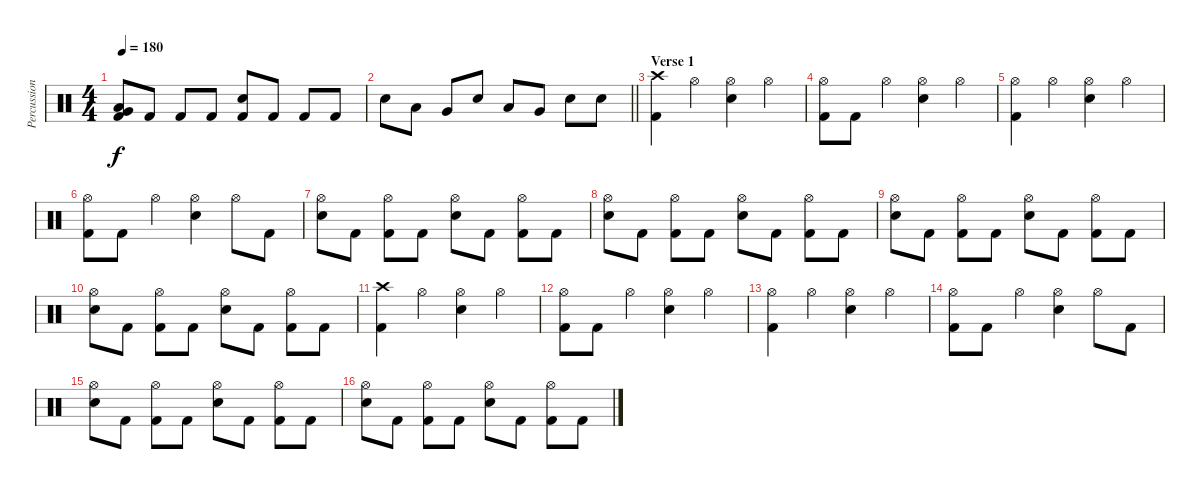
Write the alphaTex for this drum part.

\track ("Percussion" "Percussion") {instrument percussion}
\staff {score}
\articulation defaults
\ts (4 4)
\tempo 180
\clef neutral
\ks c
("Very Low Tom (hit)" "Low Floor Tom (hit)" "Kick (hit) 2").8{dy f} "Kick (hit) 2".8 "Kick (hit) 2".8 "Kick (hit) 2".8 ("Electric Snare (hit)" "Kick (hit) 2").8 "Kick (hit) 2".8 "Kick (hit) 2".8 "Kick (hit) 2".8 |
\barLineRight lightlight "Electric Snare (hit)".8 "Low Tom (hit)".8 "Very Low Tom (hit)".8 "Electric Snare (hit)".8 "Low Tom (hit)".8 "Very Low Tom (hit)".8 "Electric Snare (hit)".8 "Electric Snare (hit)".8
|
\section ("" "Verse 1")
("Crash high (hit)" "Kick (hit) 2").4 "Hi-Hat (open)".4 ("Hi-Hat (open)" "Electric Snare (hit)").4 "Hi-Hat (open)".4 |
("Hi-Hat (open)" "Kick (hit) 2").8 "Kick (hit) 2".8 "Hi-Hat (open)".4 ("Hi-Hat (open)" "Electric Snare (hit)").4 "Hi-Hat (open)".4 |
("Hi-Hat (open)" "Kick (hit) 2").4 "Hi-Hat (open)".4 ("Hi-Hat (open)" "Electric Snare (hit)").4 "Hi-Hat (open)".4 |
("Hi-Hat (open)" "Kick (hit) 2").8 "Kick (hit) 2".8 "Hi-Hat (open)".4 ("Hi-Hat (open)" "Electric Snare (hit)").4 "Hi-Hat (open)".8 "Kick (hit) 2".8 |
("Hi-Hat (open)" "Electric Snare (hit)").8 "Kick (hit) 2".8 ("Hi-Hat (open)" "Kick (hit) 2").8 "Kick (hit) 2".8 ("Hi-Hat (open)" "Electric Snare (hit)").8 "Kick (hit) 2".8 ("Hi-Hat (open)" "Kick (hit) 2").8 "Kick (hit) 2".8 |
("Hi-Hat (open)" "Electric Snare (hit)").8 "Kick (hit) 2".8 ("Hi-Hat (open)" "Kick (hit) 2").8 "Kick (hit) 2".8 ("Hi-Hat (open)" "Electric Snare (hit)").8 "Kick (hit) 2".8 ("Hi-Hat (open)" "Kick (hit) 2").8 "Kick (hit) 2".8 |
("Hi-Hat (open)" "Electric Snare (hit)").8 "Kick (hit) 2".8 ("Hi-Hat (open)" "Kick (hit) 2").8 "Kick (hit) 2".8 ("Hi-Hat (open)" "Electric Snare (hit)").8 "Kick (hit) 2".8 ("Hi-Hat (open)" "Kick (hit) 2").8 "Kick (hit) 2".8 |
("Hi-Hat (open)" "Electric Snare (hit)").8 "Kick (hit) 2".8 ("Hi-Hat (open)" "Kick (hit) 2").8 "Kick (hit) 2".8 ("Hi-Hat (open)" "Electric Snare (hit)").8 "Kick (hit) 2".8 ("Hi-Hat (open)" "Kick (hit) 2").8 "Kick (hit) 2".8 |
("Crash high (hit)" "Kick (hit) 2").4 "Hi-Hat (open)".4 ("Hi-Hat (open)" "Electric Snare (hit)").4 "Hi-Hat (open)".4 |
("Hi-Hat (open)" "Kick (hit) 2").8 "Kick (hit) 2".8 "Hi-Hat (open)".4 ("Hi-Hat (open)" "Electric Snare (hit)").4 "Hi-Hat (open)".4 |
("Hi-Hat (open)" "Kick (hit) 2").4 "Hi-Hat (open)".4 ("Hi-Hat (open)" "Electric Snare (hit)").4 "Hi-Hat (open)".4 |
("Hi-Hat (open)" "Kick (hit) 2").8 "Kick (hit) 2".8 "Hi-Hat (open)".4 ("Hi-Hat (open)" "Electric Snare (hit)").4 "Hi-Hat (open)".8 "Kick (hit) 2".8 |
("Hi-Hat (open)" "Electric Snare (hit)").8 "Kick (hit) 2".8 ("Hi-Hat (open)" "Kick (hit) 2").8 "Kick (hit) 2".8 ("Hi-Hat (open)" "Electric Snare (hit)").8 "Kick (hit) 2".8 ("Hi-Hat (open)" "Kick (hit) 2").8 "Kick (hit) 2".8 |
("Hi-Hat (open)" "Electric Snare (hit)").8 "Kick (hit) 2".8 ("Hi-Hat (open)" "Kick (hit) 2").8 "Kick (hit) 2".8 ("Hi-Hat (open)" "Electric Snare (hit)").8 "Kick (hit) 2".8 ("Hi-Hat (open)" "Kick (hit) 2").8 "Kick (hit) 2".8
